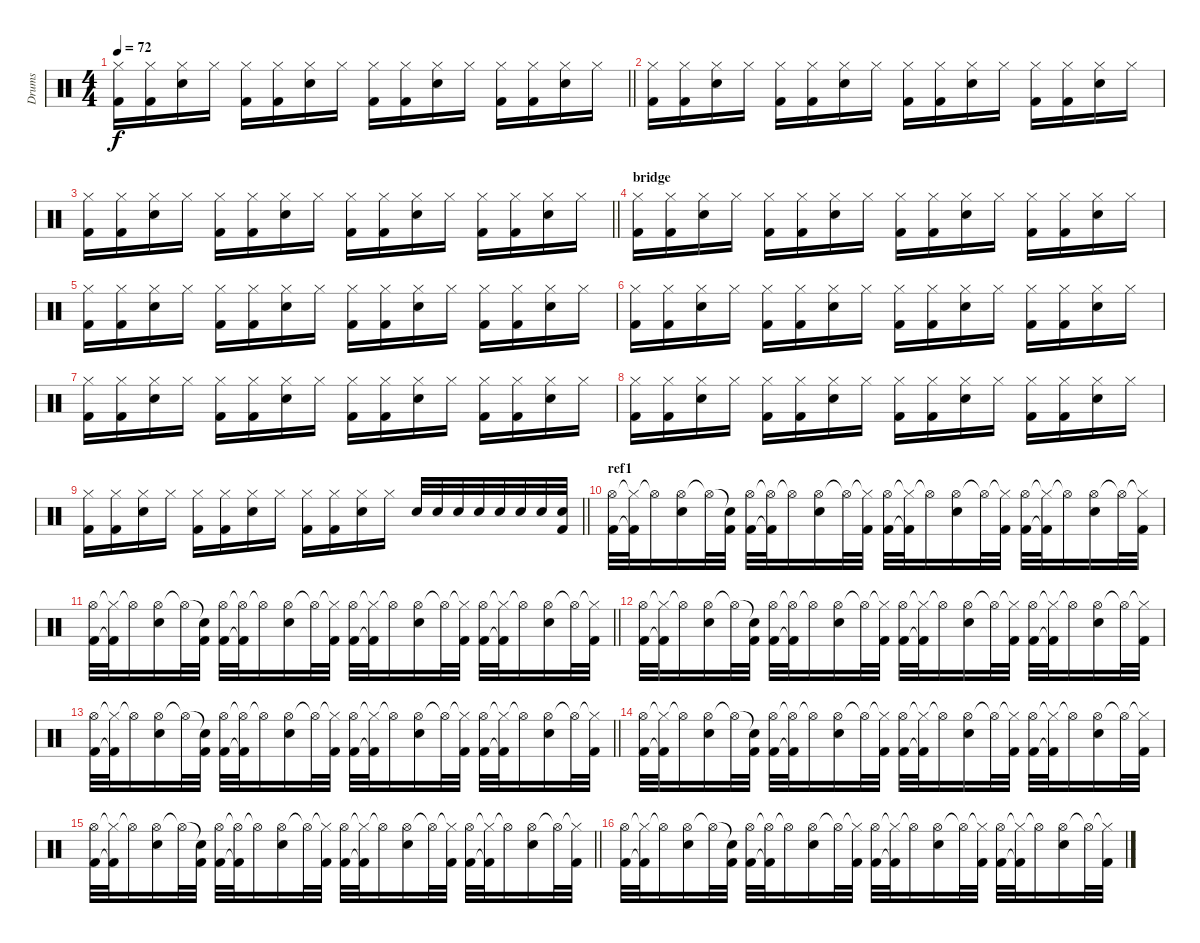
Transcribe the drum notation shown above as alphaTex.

\track ("Drums" "Drums") {instrument percussion}
\staff {score}
\articulation defaults
\ts (4 4)
\tempo 72
\clef neutral
\barLineRight lightlight
\ks c
("Hi-Hat (closed)" "Kick (hit) 2").16{dy f} ("Hi-Hat (closed)" "Kick (hit) 2").16 ("Hi-Hat (closed)" "Snare (hit) 2").16 "Hi-Hat (closed)".16 ("Hi-Hat (closed)" "Kick (hit) 2").16 ("Hi-Hat (closed)" "Kick (hit) 2").16 ("Hi-Hat (closed)" "Snare (hit) 2").16 "Hi-Hat (closed)".16 ("Hi-Hat (closed)" "Kick (hit) 2").16 ("Hi-Hat (closed)" "Kick (hit) 2").16 ("Hi-Hat (closed)" "Snare (hit) 2").16 "Hi-Hat (closed)".16 ("Hi-Hat (closed)" "Kick (hit) 2").16 ("Hi-Hat (closed)" "Kick (hit) 2").16 ("Hi-Hat (closed)" "Snare (hit) 2").16 "Hi-Hat (closed)".16 |
("Hi-Hat (closed)" "Kick (hit) 2").16 ("Hi-Hat (closed)" "Kick (hit) 2").16 ("Hi-Hat (closed)" "Snare (hit) 2").16 "Hi-Hat (closed)".16 ("Hi-Hat (closed)" "Kick (hit) 2").16 ("Hi-Hat (closed)" "Kick (hit) 2").16 ("Hi-Hat (closed)" "Snare (hit) 2").16 "Hi-Hat (closed)".16 ("Hi-Hat (closed)" "Kick (hit) 2").16 ("Hi-Hat (closed)" "Kick (hit) 2").16 ("Hi-Hat (closed)" "Snare (hit) 2").16 "Hi-Hat (closed)".16 ("Hi-Hat (closed)" "Kick (hit) 2").16 ("Hi-Hat (closed)" "Kick (hit) 2").16 ("Hi-Hat (closed)" "Snare (hit) 2").16 "Hi-Hat (closed)".16 |
\barLineRight lightlight
("Hi-Hat (closed)" "Kick (hit) 2").16 ("Hi-Hat (closed)" "Kick (hit) 2").16 ("Hi-Hat (closed)" "Snare (hit) 2").16 "Hi-Hat (closed)".16 ("Hi-Hat (closed)" "Kick (hit) 2").16 ("Hi-Hat (closed)" "Kick (hit) 2").16 ("Hi-Hat (closed)" "Snare (hit) 2").16 "Hi-Hat (closed)".16 ("Hi-Hat (closed)" "Kick (hit) 2").16 ("Hi-Hat (closed)" "Kick (hit) 2").16 ("Hi-Hat (closed)" "Snare (hit) 2").16 "Hi-Hat (closed)".16 ("Hi-Hat (closed)" "Kick (hit) 2").16 ("Hi-Hat (closed)" "Kick (hit) 2").16 ("Hi-Hat (closed)" "Snare (hit) 2").16 "Hi-Hat (closed)".16 |
\section ("" "bridge")
("Hi-Hat (closed)" "Kick (hit) 2").16 ("Hi-Hat (closed)" "Kick (hit) 2").16 ("Hi-Hat (closed)" "Snare (hit) 2").16 "Hi-Hat (closed)".16 ("Hi-Hat (closed)" "Kick (hit) 2").16 ("Hi-Hat (closed)" "Kick (hit) 2").16 ("Hi-Hat (closed)" "Snare (hit) 2").16 "Hi-Hat (closed)".16 ("Hi-Hat (closed)" "Kick (hit) 2").16 ("Hi-Hat (closed)" "Kick (hit) 2").16 ("Hi-Hat (closed)" "Snare (hit) 2").16 "Hi-Hat (closed)".16 ("Hi-Hat (closed)" "Kick (hit) 2").16 ("Hi-Hat (closed)" "Kick (hit) 2").16 ("Hi-Hat (closed)" "Snare (hit) 2").16 "Hi-Hat (closed)".16 |
("Hi-Hat (closed)" "Kick (hit) 2").16 ("Hi-Hat (closed)" "Kick (hit) 2").16 ("Hi-Hat (closed)" "Snare (hit) 2").16 "Hi-Hat (closed)".16 ("Hi-Hat (closed)" "Kick (hit) 2").16 ("Hi-Hat (closed)" "Kick (hit) 2").16 ("Hi-Hat (closed)" "Snare (hit) 2").16 "Hi-Hat (closed)".16 ("Hi-Hat (closed)" "Kick (hit) 2").16 ("Hi-Hat (closed)" "Kick (hit) 2").16 ("Hi-Hat (closed)" "Snare (hit) 2").16 "Hi-Hat (closed)".16 ("Hi-Hat (closed)" "Kick (hit) 2").16 ("Hi-Hat (closed)" "Kick (hit) 2").16 ("Hi-Hat (closed)" "Snare (hit) 2").16 "Hi-Hat (closed)".16 |
("Hi-Hat (closed)" "Kick (hit) 2").16 ("Hi-Hat (closed)" "Kick (hit) 2").16 ("Hi-Hat (closed)" "Snare (hit) 2").16 "Hi-Hat (closed)".16 ("Hi-Hat (closed)" "Kick (hit) 2").16 ("Hi-Hat (closed)" "Kick (hit) 2").16 ("Hi-Hat (closed)" "Snare (hit) 2").16 "Hi-Hat (closed)".16 ("Hi-Hat (closed)" "Kick (hit) 2").16 ("Hi-Hat (closed)" "Kick (hit) 2").16 ("Hi-Hat (closed)" "Snare (hit) 2").16 "Hi-Hat (closed)".16 ("Hi-Hat (closed)" "Kick (hit) 2").16 ("Hi-Hat (closed)" "Kick (hit) 2").16 ("Hi-Hat (closed)" "Snare (hit) 2").16 "Hi-Hat (closed)".16 |
("Hi-Hat (closed)" "Kick (hit) 2").16 ("Hi-Hat (closed)" "Kick (hit) 2").16 ("Hi-Hat (closed)" "Snare (hit) 2").16 "Hi-Hat (closed)".16 ("Hi-Hat (closed)" "Kick (hit) 2").16 ("Hi-Hat (closed)" "Kick (hit) 2").16 ("Hi-Hat (closed)" "Snare (hit) 2").16 "Hi-Hat (closed)".16 ("Hi-Hat (closed)" "Kick (hit) 2").16 ("Hi-Hat (closed)" "Kick (hit) 2").16 ("Hi-Hat (closed)" "Snare (hit) 2").16 "Hi-Hat (closed)".16 ("Hi-Hat (closed)" "Kick (hit) 2").16 ("Hi-Hat (closed)" "Kick (hit) 2").16 ("Hi-Hat (closed)" "Snare (hit) 2").16 "Hi-Hat (closed)".16 |
("Hi-Hat (closed)" "Kick (hit) 2").16 ("Hi-Hat (closed)" "Kick (hit) 2").16 ("Hi-Hat (closed)" "Snare (hit) 2").16 "Hi-Hat (closed)".16 ("Hi-Hat (closed)" "Kick (hit) 2").16 ("Hi-Hat (closed)" "Kick (hit) 2").16 ("Hi-Hat (closed)" "Snare (hit) 2").16 "Hi-Hat (closed)".16 ("Hi-Hat (closed)" "Kick (hit) 2").16 ("Hi-Hat (closed)" "Kick (hit) 2").16 ("Hi-Hat (closed)" "Snare (hit) 2").16 "Hi-Hat (closed)".16 ("Hi-Hat (closed)" "Kick (hit) 2").16 ("Hi-Hat (closed)" "Kick (hit) 2").16 ("Hi-Hat (closed)" "Snare (hit) 2").16 "Hi-Hat (closed)".16 |
\barLineRight lightlight
("Hi-Hat (closed)" "Kick (hit) 2").16 ("Hi-Hat (closed)" "Kick (hit) 2").16 ("Hi-Hat (closed)" "Snare (hit) 2").16 "Hi-Hat (closed)".16 ("Hi-Hat (closed)" "Kick (hit) 2").16 ("Hi-Hat (closed)" "Kick (hit) 2").16 ("Hi-Hat (closed)" "Snare (hit) 2").16 "Hi-Hat (closed)".16 ("Hi-Hat (closed)" "Kick (hit) 2").16 ("Hi-Hat (closed)" "Kick (hit) 2").16 ("Hi-Hat (closed)" "Snare (hit) 2").16 "Hi-Hat (closed)".16 "Snare (hit) 2".32 "Snare (hit) 2".32 "Snare (hit) 2".32 "Snare (hit) 2".32 "Snare (hit) 2".32 "Snare (hit) 2".32 "Snare (hit) 2".32 ("Snare (hit) 2" "Kick (hit) 2").32 |
\section ("" "ref1")
("Hi-Hat (open)" "Kick (hit) 2").32 ("Hi-Hat (closed)"{t} "Kick (hit) 2"{t}).32 "Hi-Hat (open)"{t}.16 ("Hi-Hat (open)" "Snare (hit) 2").16 "Hi-Hat (open)"{t}.32 ("Snare (hit)"{t} "Kick (hit) 2").32 ("Hi-Hat (open)" "Kick (hit) 2").32 ("Hi-Hat (open)"{t} "Kick (hit) 2"{t}).32 "Hi-Hat (open)"{t}.16 ("Hi-Hat (open)" "Snare (hit) 2").16 "Hi-Hat (open)"{t}.32 ("Hi-Hat (closed)"{t} "Kick (hit) 2").32 ("Hi-Hat (open)" "Kick (hit) 2").32 ("Hi-Hat (closed)"{t} "Kick (hit) 2"{t}).32 "Hi-Hat (open)"{t}.16 ("Hi-Hat (open)" "Snare (hit) 2").16 "Hi-Hat (open)"{t}.32 ("Hi-Hat (closed)"{t} "Kick (hit) 2").32 ("Hi-Hat (open)" "Kick (hit) 2").32 ("Hi-Hat (closed)"{t} "Kick (hit) 2"{t}).32 "Hi-Hat (open)"{t}.16 ("Hi-Hat (open)" "Snare (hit) 2").16 "Hi-Hat (open)"{t}.32 ("Hi-Hat (closed)"{t} "Kick (hit) 2").32 |
\barLineRight lightlight
("Hi-Hat (open)" "Kick (hit) 2").32 ("Hi-Hat (closed)"{t} "Kick (hit) 2"{t}).32 "Hi-Hat (open)"{t}.16 ("Hi-Hat (open)" "Snare (hit) 2").16 "Hi-Hat (open)"{t}.32 ("Snare (hit)"{t} "Kick (hit) 2").32 ("Hi-Hat (open)" "Kick (hit) 2").32 ("Hi-Hat (open)"{t} "Kick (hit) 2"{t}).32 "Hi-Hat (open)"{t}.16 ("Hi-Hat (open)" "Snare (hit) 2").16 "Hi-Hat (open)"{t}.32 ("Hi-Hat (closed)"{t} "Kick (hit) 2").32 ("Hi-Hat (open)" "Kick (hit) 2").32 ("Hi-Hat (closed)"{t} "Kick (hit) 2"{t}).32 "Hi-Hat (open)"{t}.16 ("Hi-Hat (open)" "Snare (hit) 2").16 "Hi-Hat (open)"{t}.32 ("Hi-Hat (closed)"{t} "Kick (hit) 2").32 ("Hi-Hat (open)" "Kick (hit) 2").32 ("Hi-Hat (closed)"{t} "Kick (hit) 2"{t}).32 "Hi-Hat (open)"{t}.16 ("Hi-Hat (open)" "Snare (hit) 2").16 "Hi-Hat (open)"{t}.32 ("Hi-Hat (closed)"{t} "Kick (hit) 2").32 |
("Hi-Hat (open)" "Kick (hit) 2").32 ("Hi-Hat (closed)"{t} "Kick (hit) 2"{t}).32 "Hi-Hat (open)"{t}.16 ("Hi-Hat (open)" "Snare (hit) 2").16 "Hi-Hat (open)"{t}.32 ("Snare (hit)"{t} "Kick (hit) 2").32 ("Hi-Hat (open)" "Kick (hit) 2").32 ("Hi-Hat (open)"{t} "Kick (hit) 2"{t}).32 "Hi-Hat (open)"{t}.16 ("Hi-Hat (open)" "Snare (hit) 2").16 "Hi-Hat (open)"{t}.32 ("Hi-Hat (closed)"{t} "Kick (hit) 2").32 ("Hi-Hat (open)" "Kick (hit) 2").32 ("Hi-Hat (closed)"{t} "Kick (hit) 2"{t}).32 "Hi-Hat (open)"{t}.16 ("Hi-Hat (open)" "Snare (hit) 2").16 "Hi-Hat (open)"{t}.32 ("Hi-Hat (closed)"{t} "Kick (hit) 2").32 ("Hi-Hat (open)" "Kick (hit) 2").32 ("Hi-Hat (closed)"{t} "Kick (hit) 2"{t}).32 "Hi-Hat (open)"{t}.16 ("Hi-Hat (open)" "Snare (hit) 2").16 "Hi-Hat (open)"{t}.32 ("Hi-Hat (closed)"{t} "Kick (hit) 2").32 |
\barLineRight lightlight
("Hi-Hat (open)" "Kick (hit) 2").32 ("Hi-Hat (closed)"{t} "Kick (hit) 2"{t}).32 "Hi-Hat (open)"{t}.16 ("Hi-Hat (open)" "Snare (hit) 2").16 "Hi-Hat (open)"{t}.32 ("Snare (hit)"{t} "Kick (hit) 2").32 ("Hi-Hat (open)" "Kick (hit) 2").32 ("Hi-Hat (open)"{t} "Kick (hit) 2"{t}).32 "Hi-Hat (open)"{t}.16 ("Hi-Hat (open)" "Snare (hit) 2").16 "Hi-Hat (open)"{t}.32 ("Hi-Hat (closed)"{t} "Kick (hit) 2").32 ("Hi-Hat (open)" "Kick (hit) 2").32 ("Hi-Hat (closed)"{t} "Kick (hit) 2"{t}).32 "Hi-Hat (open)"{t}.16 ("Hi-Hat (open)" "Snare (hit) 2").16 "Hi-Hat (open)"{t}.32 ("Hi-Hat (closed)"{t} "Kick (hit) 2").32 ("Hi-Hat (open)" "Kick (hit) 2").32 ("Hi-Hat (closed)"{t} "Kick (hit) 2"{t}).32 "Hi-Hat (open)"{t}.16 ("Hi-Hat (open)" "Snare (hit) 2").16 "Hi-Hat (open)"{t}.32 ("Hi-Hat (closed)"{t} "Kick (hit) 2").32 |
("Hi-Hat (open)" "Kick (hit) 2").32 ("Hi-Hat (closed)"{t} "Kick (hit) 2"{t}).32 "Hi-Hat (open)"{t}.16 ("Hi-Hat (open)" "Snare (hit) 2").16 "Hi-Hat (open)"{t}.32 ("Snare (hit)"{t} "Kick (hit) 2").32 ("Hi-Hat (open)" "Kick (hit) 2").32 ("Hi-Hat (open)"{t} "Kick (hit) 2"{t}).32 "Hi-Hat (open)"{t}.16 ("Hi-Hat (open)" "Snare (hit) 2").16 "Hi-Hat (open)"{t}.32 ("Hi-Hat (closed)"{t} "Kick (hit) 2").32 ("Hi-Hat (open)" "Kick (hit) 2").32 ("Hi-Hat (closed)"{t} "Kick (hit) 2"{t}).32 "Hi-Hat (open)"{t}.16 ("Hi-Hat (open)" "Snare (hit) 2").16 "Hi-Hat (open)"{t}.32 ("Hi-Hat (closed)"{t} "Kick (hit) 2").32 ("Hi-Hat (open)" "Kick (hit) 2").32 ("Hi-Hat (closed)"{t} "Kick (hit) 2"{t}).32 "Hi-Hat (open)"{t}.16 ("Hi-Hat (open)" "Snare (hit) 2").16 "Hi-Hat (open)"{t}.32 ("Hi-Hat (closed)"{t} "Kick (hit) 2").32 |
\barLineRight lightlight
("Hi-Hat (open)" "Kick (hit) 2").32 ("Hi-Hat (closed)"{t} "Kick (hit) 2"{t}).32 "Hi-Hat (open)"{t}.16 ("Hi-Hat (open)" "Snare (hit) 2").16 "Hi-Hat (open)"{t}.32 ("Snare (hit)"{t} "Kick (hit) 2").32 ("Hi-Hat (open)" "Kick (hit) 2").32 ("Hi-Hat (open)"{t} "Kick (hit) 2"{t}).32 "Hi-Hat (open)"{t}.16 ("Hi-Hat (open)" "Snare (hit) 2").16 "Hi-Hat (open)"{t}.32 ("Hi-Hat (closed)"{t} "Kick (hit) 2").32 ("Hi-Hat (open)" "Kick (hit) 2").32 ("Hi-Hat (closed)"{t} "Kick (hit) 2"{t}).32 "Hi-Hat (open)"{t}.16 ("Hi-Hat (open)" "Snare (hit) 2").16 "Hi-Hat (open)"{t}.32 ("Hi-Hat (closed)"{t} "Kick (hit) 2").32 ("Hi-Hat (open)" "Kick (hit) 2").32 ("Hi-Hat (closed)"{t} "Kick (hit) 2"{t}).32 "Hi-Hat (open)"{t}.16 ("Hi-Hat (open)" "Snare (hit) 2").16 "Hi-Hat (open)"{t}.32 ("Hi-Hat (closed)"{t} "Kick (hit) 2").32 |
("Hi-Hat (open)" "Kick (hit) 2").32 ("Hi-Hat (closed)"{t} "Kick (hit) 2"{t}).32 "Hi-Hat (open)"{t}.16 ("Hi-Hat (open)" "Snare (hit) 2").16 "Hi-Hat (open)"{t}.32 ("Snare (hit)"{t} "Kick (hit) 2").32 ("Hi-Hat (open)" "Kick (hit) 2").32 ("Hi-Hat (open)"{t} "Kick (hit) 2"{t}).32 "Hi-Hat (open)"{t}.16 ("Hi-Hat (open)" "Snare (hit) 2").16 "Hi-Hat (open)"{t}.32 ("Hi-Hat (closed)"{t} "Kick (hit) 2").32 ("Hi-Hat (open)" "Kick (hit) 2").32 ("Hi-Hat (closed)"{t} "Kick (hit) 2"{t}).32 "Hi-Hat (open)"{t}.16 ("Hi-Hat (open)" "Snare (hit) 2").16 "Hi-Hat (open)"{t}.32 ("Hi-Hat (closed)"{t} "Kick (hit) 2").32 ("Hi-Hat (open)" "Kick (hit) 2").32 ("Hi-Hat (closed)"{t} "Kick (hit) 2"{t}).32 "Hi-Hat (open)"{t}.16 ("Hi-Hat (open)" "Snare (hit) 2").16 "Hi-Hat (open)"{t}.32 ("Hi-Hat (closed)"{t} "Kick (hit) 2").32
